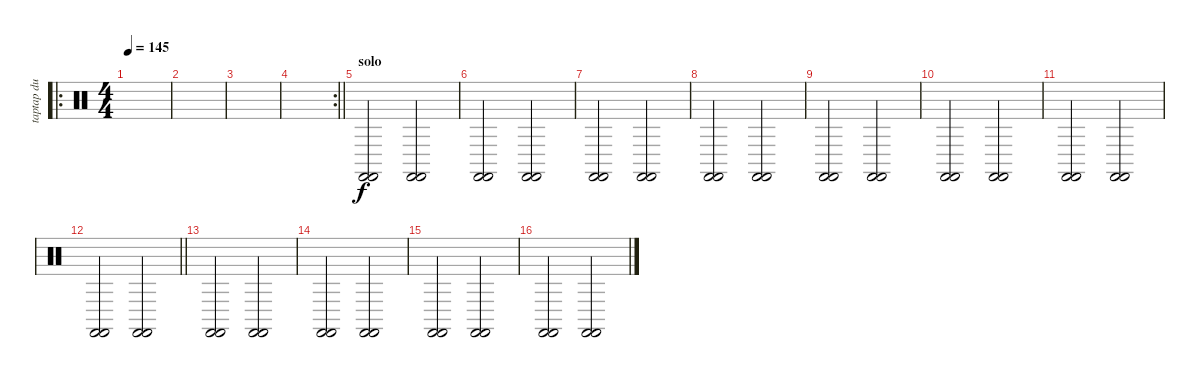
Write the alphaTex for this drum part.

\track ("taptap du pied" "taptap du ") {instrument percussion}
\staff {score}
\articulation defaults
\ro
\ts (4 4)
\tempo 145
\clef neutral
\ks c
|
|
|
\rc 2
\barLineRight lightlight
|
\section ("" "solo")
("Castanets (hit)" "Castanets (hit)").2 ("Castanets (hit)" "Castanets (hit)").2 |
("Castanets (hit)" "Castanets (hit)").2 ("Castanets (hit)" "Castanets (hit)").2 |
("Castanets (hit)" "Castanets (hit)").2 ("Castanets (hit)" "Castanets (hit)").2 |
("Castanets (hit)" "Castanets (hit)").2 ("Castanets (hit)" "Castanets (hit)").2 |
("Castanets (hit)" "Castanets (hit)").2 ("Castanets (hit)" "Castanets (hit)").2 |
("Castanets (hit)" "Castanets (hit)").2 ("Castanets (hit)" "Castanets (hit)").2 |
("Castanets (hit)" "Castanets (hit)").2 ("Castanets (hit)" "Castanets (hit)").2 |
\barLineRight lightlight
("Castanets (hit)" "Castanets (hit)").2 ("Castanets (hit)" "Castanets (hit)").2 |
("Castanets (hit)" "Castanets (hit)").2 ("Castanets (hit)" "Castanets (hit)").2 |
("Castanets (hit)" "Castanets (hit)").2 ("Castanets (hit)" "Castanets (hit)").2 |
("Castanets (hit)" "Castanets (hit)").2 ("Castanets (hit)" "Castanets (hit)").2 |
("Castanets (hit)" "Castanets (hit)").2 ("Castanets (hit)" "Castanets (hit)").2
